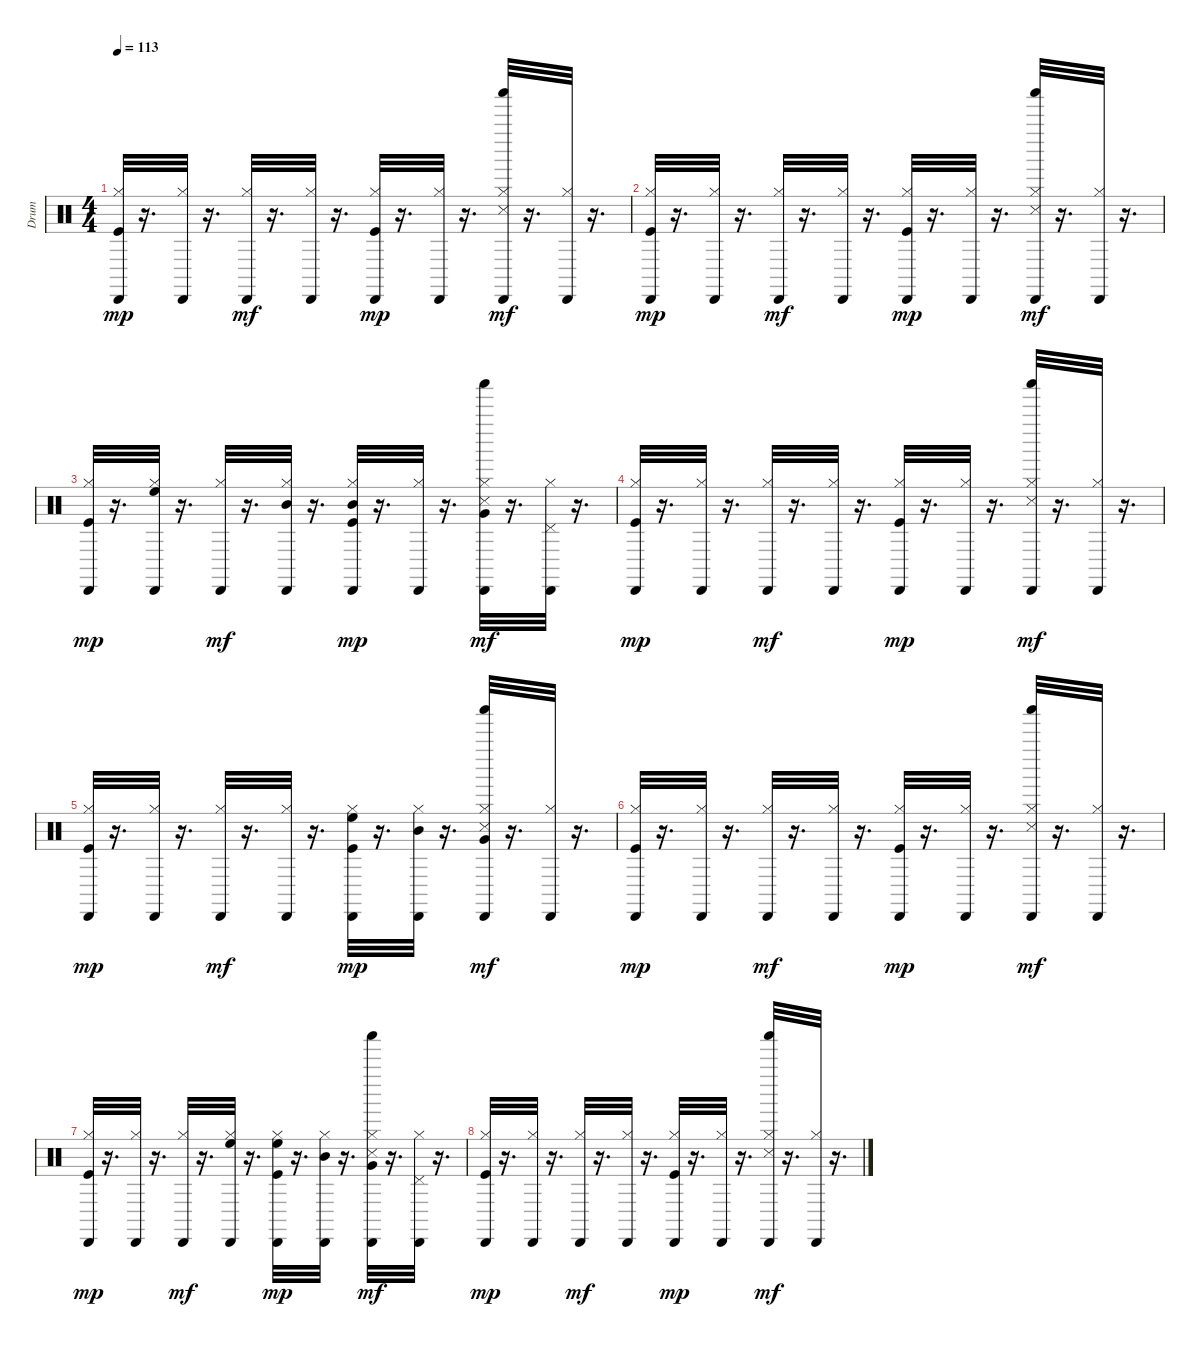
\track ("Drum" "Drum") {instrument percussion}
\staff {score}
\articulation defaults
\ts (4 4)
\tempo 113
\clef neutral
\ks c
("Hi-Hat (closed)" "Kick (hit)" "Cabasa (hit)").32{dy mp} r.16{d} ("Hi-Hat (closed)" "Cabasa (hit)").32 r.16{d} ("Hi-Hat (closed)" "Cabasa (hit)").32{dy mf} r.16{d} ("Hi-Hat (closed)" "Cabasa (hit)").32 r.16{d} ("Hi-Hat (closed)" "Kick (hit)" "Cabasa (hit)").32{dy mp} r.16{d} ("Hi-Hat (closed)" "Cabasa (hit)").32 r.16{d} ("Hi-Hat (closed)" "Shaker (hit)" "Snare (side stick) 3" "Cabasa (hit)").32{dy mf} r.16{d} ("Hi-Hat (closed)" "Cabasa (hit)").32 r.16{d} |
("Hi-Hat (closed)" "Kick (hit)" "Cabasa (hit)").32{dy mp} r.16{d} ("Hi-Hat (closed)" "Cabasa (hit)").32 r.16{d} ("Hi-Hat (closed)" "Cabasa (hit)").32{dy mf} r.16{d} ("Hi-Hat (closed)" "Cabasa (hit)").32 r.16{d} ("Hi-Hat (closed)" "Kick (hit)" "Cabasa (hit)").32{dy mp} r.16{d} ("Hi-Hat (closed)" "Cabasa (hit)").32 r.16{d} ("Hi-Hat (closed)" "Shaker (hit)" "Snare (side stick) 3" "Cabasa (hit)").32{dy mf} r.16{d} ("Hi-Hat (closed)" "Cabasa (hit)").32 r.16{d} |
("Hi-Hat (closed)" "Kick (hit)" "Cabasa (hit)").32{dy mp} r.16{d} ("Hi-Hat (closed)" "High Floor Tom (hit)" "Cabasa (hit)").32 r.16{d} ("Hi-Hat (closed)" "Cabasa (hit)").32{dy mf} r.16{d} ("Hi-Hat (closed)" "Mid Tom (hit)" "Cabasa (hit)").32 r.16{d} ("Hi-Hat (closed)" "Mid Tom (hit)" "Kick (hit)" "Cabasa (hit)").32{dy mp} r.16{d} ("Hi-Hat (closed)" "Cabasa (hit)").32 r.16{d} ("Hi-Hat (closed)" "Very Low Tom (hit)" "Shaker (hit)" "Snare (side stick) 3" "Cabasa (hit)").32{dy mf} r.16{d} ("Hi-Hat (closed)" "Pedal Hi-Hat (hit)" "Cabasa (hit)").32 r.16{d} |
("Hi-Hat (closed)" "Kick (hit)" "Cabasa (hit)").32{dy mp} r.16{d} ("Hi-Hat (closed)" "Cabasa (hit)").32 r.16{d} ("Hi-Hat (closed)" "Cabasa (hit)").32{dy mf} r.16{d} ("Hi-Hat (closed)" "Cabasa (hit)").32 r.16{d} ("Hi-Hat (closed)" "Kick (hit)" "Cabasa (hit)").32{dy mp} r.16{d} ("Hi-Hat (closed)" "Cabasa (hit)").32 r.16{d} ("Hi-Hat (closed)" "Shaker (hit)" "Snare (side stick) 3" "Cabasa (hit)").32{dy mf} r.16{d} ("Hi-Hat (closed)" "Cabasa (hit)").32 r.16{d} |
("Hi-Hat (closed)" "Kick (hit)" "Cabasa (hit)").32{dy mp} r.16{d} ("Hi-Hat (closed)" "Cabasa (hit)").32 r.16{d} ("Hi-Hat (closed)" "Cabasa (hit)").32{dy mf} r.16{d} ("Hi-Hat (closed)" "Cabasa (hit)").32 r.16{d} ("Hi-Hat (closed)" "High Floor Tom (hit)" "Kick (hit)" "Cabasa (hit)").32{dy mp} r.16{d} ("Hi-Hat (closed)" "Mid Tom (hit)" "Cabasa (hit)").32 r.16{d} ("Hi-Hat (closed)" "Very Low Tom (hit)" "Shaker (hit)" "Snare (side stick) 3" "Cabasa (hit)").32{dy mf} r.16{d} ("Hi-Hat (closed)" "Cabasa (hit)").32 r.16{d} |
("Hi-Hat (closed)" "Kick (hit)" "Cabasa (hit)").32{dy mp} r.16{d} ("Hi-Hat (closed)" "Cabasa (hit)").32 r.16{d} ("Hi-Hat (closed)" "Cabasa (hit)").32{dy mf} r.16{d} ("Hi-Hat (closed)" "Cabasa (hit)").32 r.16{d} ("Hi-Hat (closed)" "Kick (hit)" "Cabasa (hit)").32{dy mp} r.16{d} ("Hi-Hat (closed)" "Cabasa (hit)").32 r.16{d} ("Hi-Hat (closed)" "Shaker (hit)" "Snare (side stick) 3" "Cabasa (hit)").32{dy mf} r.16{d} ("Hi-Hat (closed)" "Cabasa (hit)").32 r.16{d} |
("Hi-Hat (closed)" "Kick (hit)" "Cabasa (hit)").32{dy mp} r.16{d} ("Hi-Hat (closed)" "Cabasa (hit)").32 r.16{d} ("Hi-Hat (closed)" "Cabasa (hit)").32{dy mf} r.16{d} ("Hi-Hat (closed)" "High Floor Tom (hit)" "Cabasa (hit)").32 r.16{d} ("Hi-Hat (closed)" "High Floor Tom (hit)" "Kick (hit)" "Cabasa (hit)").32{dy mp} r.16{d} ("Hi-Hat (closed)" "Mid Tom (hit)" "Cabasa (hit)").32 r.16{d} ("Hi-Hat (closed)" "Very Low Tom (hit)" "Shaker (hit)" "Snare (side stick) 3" "Cabasa (hit)").32{dy mf} r.16{d} ("Hi-Hat (closed)" "Pedal Hi-Hat (hit)" "Cabasa (hit)").32 r.16{d} |
("Hi-Hat (closed)" "Kick (hit)" "Cabasa (hit)").32{dy mp} r.16{d} ("Hi-Hat (closed)" "Cabasa (hit)").32 r.16{d} ("Hi-Hat (closed)" "Cabasa (hit)").32{dy mf} r.16{d} ("Hi-Hat (closed)" "Cabasa (hit)").32 r.16{d} ("Hi-Hat (closed)" "Kick (hit)" "Cabasa (hit)").32{dy mp} r.16{d} ("Hi-Hat (closed)" "Cabasa (hit)").32 r.16{d} ("Hi-Hat (closed)" "Shaker (hit)" "Snare (side stick) 3" "Cabasa (hit)").32{dy mf} r.16{d} ("Hi-Hat (closed)" "Cabasa (hit)").32 r.16{d}
